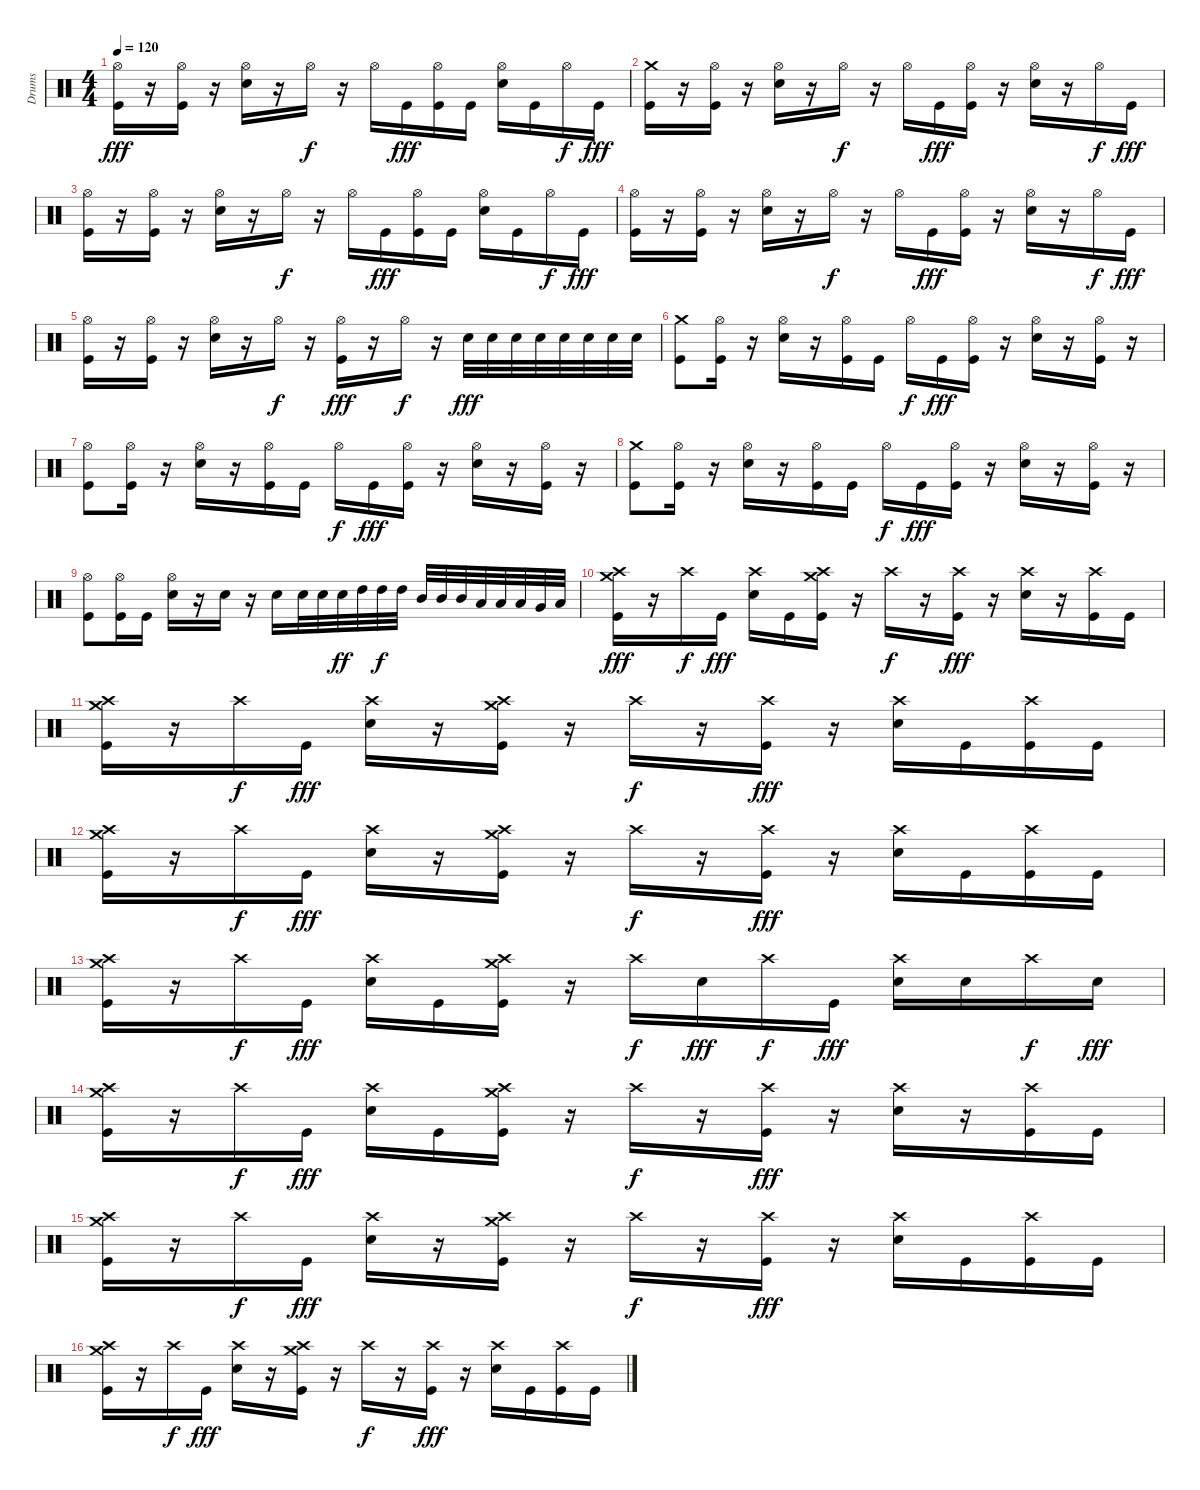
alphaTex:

\track ("Drums" "Drums") {instrument percussion}
\staff {score}
\articulation defaults
\ts (4 4)
\tempo 120
\clef neutral
\ks c
("Hi-Hat (open)" "Kick (hit)").16{dy fff} r.16 ("Hi-Hat (open)" "Kick (hit)").16 r.16 ("Hi-Hat (open)" "Electric Snare (hit)").16 r.16 "Hi-Hat (open)".16{dy f} r.16 "Hi-Hat (open)".16 "Kick (hit)".16{dy fff} ("Hi-Hat (open)" "Kick (hit)").16 "Kick (hit)".16 ("Hi-Hat (open)" "Electric Snare (hit)").16 "Kick (hit)".16 "Hi-Hat (open)".16{dy f} "Kick (hit)".16{dy fff} |
("Crash medium (hit)" "Kick (hit)").16 r.16 ("Hi-Hat (open)" "Kick (hit)").16 r.16 ("Hi-Hat (open)" "Electric Snare (hit)").16 r.16 "Hi-Hat (open)".16{dy f} r.16 "Hi-Hat (open)".16 "Kick (hit)".16{dy fff} ("Hi-Hat (open)" "Kick (hit)").16 r.16 ("Hi-Hat (open)" "Electric Snare (hit)").16 r.16 "Hi-Hat (open)".16{dy f} "Kick (hit)".16{dy fff} |
("Hi-Hat (open)" "Kick (hit)").16 r.16 ("Hi-Hat (open)" "Kick (hit)").16 r.16 ("Hi-Hat (open)" "Electric Snare (hit)").16 r.16 "Hi-Hat (open)".16{dy f} r.16 "Hi-Hat (open)".16 "Kick (hit)".16{dy fff} ("Hi-Hat (open)" "Kick (hit)").16 "Kick (hit)".16 ("Hi-Hat (open)" "Electric Snare (hit)").16 "Kick (hit)".16 "Hi-Hat (open)".16{dy f} "Kick (hit)".16{dy fff} |
("Hi-Hat (open)" "Kick (hit)").16 r.16 ("Hi-Hat (open)" "Kick (hit)").16 r.16 ("Hi-Hat (open)" "Electric Snare (hit)").16 r.16 "Hi-Hat (open)".16{dy f} r.16 "Hi-Hat (open)".16 "Kick (hit)".16{dy fff} ("Hi-Hat (open)" "Kick (hit)").16 r.16 ("Hi-Hat (open)" "Electric Snare (hit)").16 r.16 "Hi-Hat (open)".16{dy f} "Kick (hit)".16{dy fff} |
("Hi-Hat (open)" "Kick (hit)").16 r.16 ("Hi-Hat (open)" "Kick (hit)").16 r.16 ("Hi-Hat (open)" "Electric Snare (hit)").16 r.16 "Hi-Hat (open)".16{dy f} r.16 ("Hi-Hat (open)" "Kick (hit)").16{dy fff} r.16 "Hi-Hat (open)".16{dy f} r.16 "Electric Snare (hit)".32{dy fff} "Electric Snare (hit)".32 "Electric Snare (hit)".32 "Electric Snare (hit)".32 "Electric Snare (hit)".32 "Electric Snare (hit)".32 "Electric Snare (hit)".32 "Electric Snare (hit)".32 |
("Kick (hit)" "Crash medium (hit)").8 ("Kick (hit)" "Hi-Hat (open)").16 r.16 ("Electric Snare (hit)" "Hi-Hat (open)").16 r.16 ("Kick (hit)" "Hi-Hat (open)").16 "Kick (hit)".16 "Hi-Hat (open)".16{dy f} "Kick (hit)".16{dy fff} ("Kick (hit)" "Hi-Hat (open)").16 r.16 ("Electric Snare (hit)" "Hi-Hat (open)").16 r.16 ("Kick (hit)" "Hi-Hat (open)").16 r.16 |
("Kick (hit)" "Hi-Hat (open)").8 ("Kick (hit)" "Hi-Hat (open)").16 r.16 ("Electric Snare (hit)" "Hi-Hat (open)").16 r.16 ("Kick (hit)" "Hi-Hat (open)").16 "Kick (hit)".16 "Hi-Hat (open)".16{dy f} "Kick (hit)".16{dy fff} ("Kick (hit)" "Hi-Hat (open)").16 r.16 ("Electric Snare (hit)" "Hi-Hat (open)").16 r.16 ("Kick (hit)" "Hi-Hat (open)").16 r.16 |
("Kick (hit)" "Crash medium (hit)").8 ("Kick (hit)" "Hi-Hat (open)").16 r.16 ("Electric Snare (hit)" "Hi-Hat (open)").16 r.16 ("Kick (hit)" "Hi-Hat (open)").16 "Kick (hit)".16 "Hi-Hat (open)".16{dy f} "Kick (hit)".16{dy fff} ("Kick (hit)" "Hi-Hat (open)").16 r.16 ("Electric Snare (hit)" "Hi-Hat (open)").16 r.16 ("Kick (hit)" "Hi-Hat (open)").16 r.16 |
("Kick (hit)" "Hi-Hat (open)").8 ("Kick (hit)" "Hi-Hat (open)").16 "Kick (hit)".16 ("Electric Snare (hit)" "Hi-Hat (open)").16 r.16 "Electric Snare (hit)".16 r.16 "Electric Snare (hit)".16 "Electric Snare (hit)".32 "Electric Snare (hit)".32 "Electric Snare (hit)".32{dy ff} "High Tom (hit)".32 "High Tom (hit)".32{dy f} "High Tom (hit)".32 "Mid Tom (hit)".32 "Mid Tom (hit)".32 "Mid Tom (hit)".32 "Low Tom (hit)".32 "Low Tom (hit)".32 "Low Tom (hit)".32 "Very Low Tom (hit)".32 "Low Floor Tom (hit)".32 |
("Crash medium (hit)" "Crash high (hit)" "Kick (hit)").16{dy fff} r.16 "Crash high (hit)".16{dy f} "Kick (hit)".16{dy fff} ("Crash high (hit)" "Electric Snare (hit)").16 "Kick (hit)".16 ("Crash medium (hit)" "Crash high (hit)" "Kick (hit)").16 r.16 "Crash high (hit)".16{dy f} r.16 ("Crash high (hit)" "Kick (hit)").16{dy fff} r.16 ("Crash high (hit)" "Electric Snare (hit)").16 r.16 ("Crash high (hit)" "Kick (hit)").16 "Kick (hit)".16 |
("Crash medium (hit)" "Crash high (hit)" "Kick (hit)").16 r.16 "Crash high (hit)".16{dy f} "Kick (hit)".16{dy fff} ("Crash high (hit)" "Electric Snare (hit)").16 r.16 ("Crash medium (hit)" "Crash high (hit)" "Kick (hit)").16 r.16 "Crash high (hit)".16{dy f} r.16 ("Crash high (hit)" "Kick (hit)").16{dy fff} r.16 ("Crash high (hit)" "Electric Snare (hit)").16 "Kick (hit)".16 ("Crash high (hit)" "Kick (hit)").16 "Kick (hit)".16 |
("Crash medium (hit)" "Crash high (hit)" "Kick (hit)").16 r.16 "Crash high (hit)".16{dy f} "Kick (hit)".16{dy fff} ("Crash high (hit)" "Electric Snare (hit)").16 r.16 ("Crash medium (hit)" "Crash high (hit)" "Kick (hit)").16 r.16 "Crash high (hit)".16{dy f} r.16 ("Crash high (hit)" "Kick (hit)").16{dy fff} r.16 ("Crash high (hit)" "Electric Snare (hit)").16 "Kick (hit)".16 ("Crash high (hit)" "Kick (hit)").16 "Kick (hit)".16 |
("Crash medium (hit)" "Crash high (hit)" "Kick (hit)").16 r.16 "Crash high (hit)".16{dy f} "Kick (hit)".16{dy fff} ("Crash high (hit)" "Electric Snare (hit)").16 "Kick (hit)".16 ("Crash medium (hit)" "Crash high (hit)" "Kick (hit)").16 r.16 "Crash high (hit)".16{dy f} "Electric Snare (hit)".16{dy fff} "Crash high (hit)".16{dy f} "Kick (hit)".16{dy fff} ("Crash high (hit)" "Electric Snare (hit)").16 "Electric Snare (hit)".16 "Crash high (hit)".16{dy f} "Electric Snare (hit)".16{dy fff} |
("Crash medium (hit)" "Crash high (hit)" "Kick (hit)").16 r.16 "Crash high (hit)".16{dy f} "Kick (hit)".16{dy fff} ("Crash high (hit)" "Electric Snare (hit)").16 "Kick (hit)".16 ("Crash medium (hit)" "Crash high (hit)" "Kick (hit)").16 r.16 "Crash high (hit)".16{dy f} r.16 ("Crash high (hit)" "Kick (hit)").16{dy fff} r.16 ("Crash high (hit)" "Electric Snare (hit)").16 r.16 ("Crash high (hit)" "Kick (hit)").16 "Kick (hit)".16 |
("Crash medium (hit)" "Crash high (hit)" "Kick (hit)").16 r.16 "Crash high (hit)".16{dy f} "Kick (hit)".16{dy fff} ("Crash high (hit)" "Electric Snare (hit)").16 r.16 ("Crash medium (hit)" "Crash high (hit)" "Kick (hit)").16 r.16 "Crash high (hit)".16{dy f} r.16 ("Crash high (hit)" "Kick (hit)").16{dy fff} r.16 ("Crash high (hit)" "Electric Snare (hit)").16 "Kick (hit)".16 ("Crash high (hit)" "Kick (hit)").16 "Kick (hit)".16 |
("Crash medium (hit)" "Crash high (hit)" "Kick (hit)").16 r.16 "Crash high (hit)".16{dy f} "Kick (hit)".16{dy fff} ("Crash high (hit)" "Electric Snare (hit)").16 r.16 ("Crash medium (hit)" "Crash high (hit)" "Kick (hit)").16 r.16 "Crash high (hit)".16{dy f} r.16 ("Crash high (hit)" "Kick (hit)").16{dy fff} r.16 ("Crash high (hit)" "Electric Snare (hit)").16 "Kick (hit)".16 ("Crash high (hit)" "Kick (hit)").16 "Kick (hit)".16
